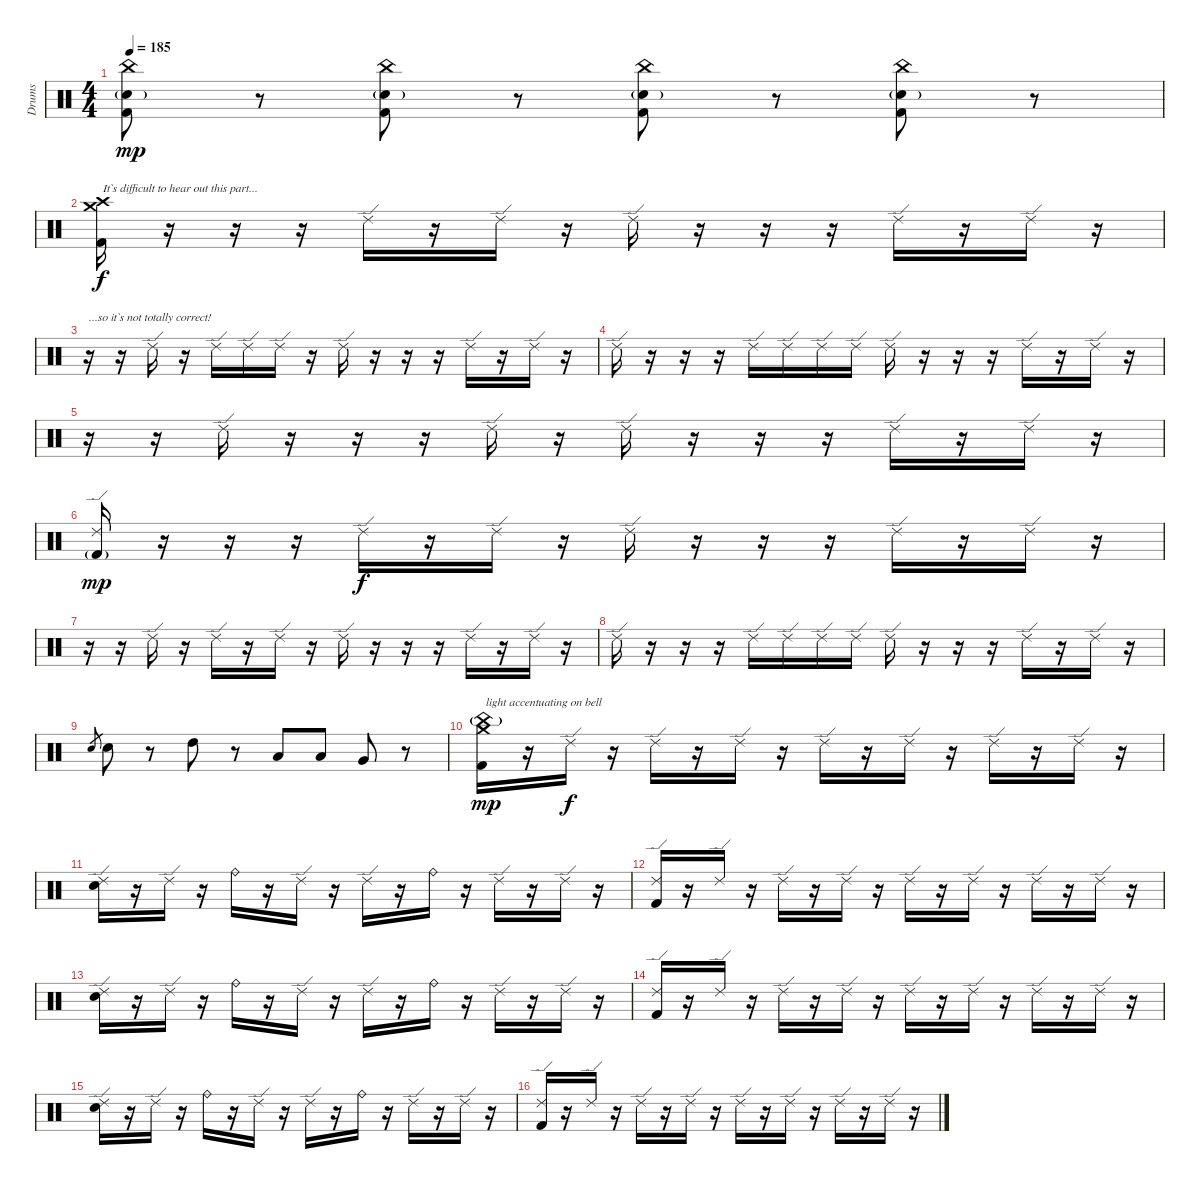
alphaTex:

\track ("Drums" "Drums") {instrument percussion}
\staff {score}
\articulation defaults
\ts (4 4)
\tempo 185
\clef neutral
\ks c
("China (hit)" "Electric Snare (hit)"{g} "Kick (hit) 2").8{dy mp} r.8 ("China (hit)" "Electric Snare (hit)"{g} "Kick (hit) 2").8 r.8 ("China (hit)" "Electric Snare (hit)"{g} "Kick (hit) 2").8 r.8 ("China (hit)" "Electric Snare (hit)"{g} "Kick (hit) 2").8 r.8 |
("Crash medium (hit)" "Crash high (hit)" "Kick (hit) 2").16{txt "It`s difficult to hear out this part..." dy f} r.16 r.16 r.16 "Ride (edge) 2".16 r.16 "Ride (edge) 2".16 r.16 "Ride (edge) 2".16 r.16 r.16 r.16 "Ride (edge) 2".16 r.16 "Ride (edge) 2".16 r.16 |
r.16{txt "...so it`s not totally correct!"} r.16 "Ride (edge) 2".16 r.16 "Ride (edge) 2".16 "Ride (edge) 2".16 "Ride (edge) 2".16 r.16 "Ride (edge) 2".16 r.16 r.16 r.16 "Ride (edge) 2".16 r.16 "Ride (edge) 2".16 r.16 |
"Ride (edge) 2".16 r.16 r.16 r.16 "Ride (edge) 2".16 "Ride (edge) 2".16 "Ride (edge) 2".16 "Ride (edge) 2".16 "Ride (edge) 2".16 r.16 r.16 r.16 "Ride (edge) 2".16 r.16 "Ride (edge) 2".16 r.16 |
r.16 r.16 "Ride (edge) 2".16 r.16 r.16 r.16 "Ride (edge) 2".16 r.16 "Ride (edge) 2".16 r.16 r.16 r.16 "Ride (edge) 2".16 r.16 "Ride (edge) 2".16 r.16 |
("Ride (edge) 2" "Kick (hit) 2"{g}).16{dy mp} r.16 r.16 r.16 "Ride (edge) 2".16{dy f} r.16 "Ride (edge) 2".16 r.16 "Ride (edge) 2".16 r.16 r.16 r.16 "Ride (edge) 2".16 r.16 "Ride (edge) 2".16 r.16 |
r.16 r.16 "Ride (edge) 2".16 r.16 "Ride (edge) 2".16 r.16 "Ride (edge) 2".16 r.16 "Ride (edge) 2".16 r.16 r.16 r.16 "Ride (edge) 2".16 r.16 "Ride (edge) 2".16 r.16 |
"Ride (edge) 2".16 r.16 r.16 r.16 "Ride (edge) 2".16 "Ride (edge) 2".16 "Ride (edge) 2".16 "Ride (edge) 2".16 "Ride (edge) 2".16 r.16 r.16 r.16 "Ride (edge) 2".16 r.16 "Ride (edge) 2".16 r.16 |
"Electric Snare (hit)".8{gr} "Electric Snare (hit)".8{volume 16} r.8 "High Tom (hit)".8 r.8 "Low Tom (hit)".8 "Low Tom (hit)".8 "Very Low Tom (hit)".8 r.8 |
("Crash medium (hit)" "China (hit)"{g} "Kick (hit) 2").16{txt "light accentuating on bell" dy mp volume 11} r.16 "Ride (edge) 2".16{dy f} r.16 "Ride (edge) 2".16 r.16 "Ride (edge) 2".16 r.16 "Ride (edge) 2".16 r.16 "Ride (edge) 2".16 r.16 "Ride (edge) 2".16 r.16 "Ride (edge) 2".16 r.16 |
("Ride (edge) 2" "Electric Snare (hit)").16 r.16 "Ride (edge) 2".16 r.16 "Ride (bell)".16 r.16 "Ride (edge) 2".16 r.16 "Ride (edge) 2".16 r.16 "Ride (bell)".16 r.16 "Ride (edge) 2".16 r.16 "Ride (edge) 2".16 r.16 |
("Ride (edge) 2" "Kick (hit) 2").16 r.16 "Ride (edge) 2".16 r.16 "Ride (edge) 2".16 r.16 "Ride (edge) 2".16 r.16 "Ride (edge) 2".16 r.16 "Ride (edge) 2".16 r.16 "Ride (edge) 2".16 r.16 "Ride (edge) 2".16 r.16 |
("Ride (edge) 2" "Electric Snare (hit)").16 r.16 "Ride (edge) 2".16 r.16 "Ride (bell)".16 r.16 "Ride (edge) 2".16 r.16 "Ride (edge) 2".16 r.16 "Ride (bell)".16 r.16 "Ride (edge) 2".16 r.16 "Ride (edge) 2".16 r.16 |
("Ride (edge) 2" "Kick (hit) 2").16 r.16 "Ride (edge) 2".16 r.16 "Ride (edge) 2".16 r.16 "Ride (edge) 2".16 r.16 "Ride (edge) 2".16 r.16 "Ride (edge) 2".16 r.16 "Ride (edge) 2".16 r.16 "Ride (edge) 2".16 r.16 |
("Ride (edge) 2" "Electric Snare (hit)").16 r.16 "Ride (edge) 2".16 r.16 "Ride (bell)".16 r.16 "Ride (edge) 2".16 r.16 "Ride (edge) 2".16 r.16 "Ride (bell)".16 r.16 "Ride (edge) 2".16 r.16 "Ride (edge) 2".16 r.16 |
("Ride (edge) 2" "Kick (hit) 2").16 r.16 "Ride (edge) 2".16 r.16 "Ride (edge) 2".16 r.16 "Ride (edge) 2".16 r.16 "Ride (edge) 2".16 r.16 "Ride (edge) 2".16 r.16 "Ride (edge) 2".16 r.16 "Ride (edge) 2".16 r.16
